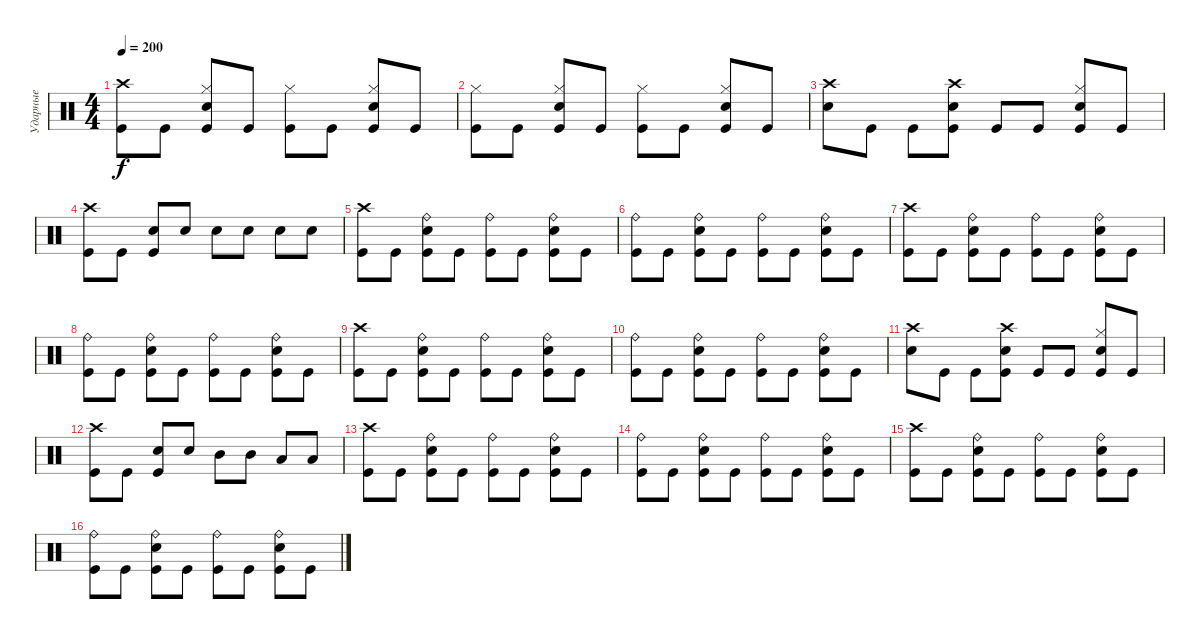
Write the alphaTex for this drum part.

\track ("Ударные" "Ударные") {instrument percussion}
\staff {score}
\articulation defaults
\ts (4 4)
\tempo 200
\clef neutral
\ks c
("Crash high (hit)" "Kick (hit)").8{dy f} "Kick (hit)".8 ("Hi-Hat (closed)" "Electric Snare (hit)" "Kick (hit)").8 "Kick (hit)".8 ("Hi-Hat (closed)" "Kick (hit)").8 "Kick (hit)".8 ("Hi-Hat (closed)" "Electric Snare (hit)" "Kick (hit)").8 "Kick (hit)".8 |
("Hi-Hat (closed)" "Kick (hit)").8 "Kick (hit)".8 ("Hi-Hat (closed)" "Electric Snare (hit)" "Kick (hit)").8 "Kick (hit)".8 ("Hi-Hat (closed)" "Kick (hit)").8 "Kick (hit)".8 ("Hi-Hat (closed)" "Electric Snare (hit)" "Kick (hit)").8 "Kick (hit)".8 |
("Crash high (hit)" "Electric Snare (hit)").8 "Kick (hit)".8 "Kick (hit)".8 ("Crash high (hit)" "Electric Snare (hit)" "Kick (hit)").8 "Kick (hit)".8 "Kick (hit)".8 ("Hi-Hat (closed)" "Electric Snare (hit)" "Kick (hit)").8 "Kick (hit)".8 |
("Crash high (hit)" "Kick (hit)").8 "Kick (hit)".8 ("Electric Snare (hit)" "Kick (hit)").8 "Electric Snare (hit)".8 "Electric Snare (hit)".8 "Electric Snare (hit)".8 "Electric Snare (hit)".8 "Electric Snare (hit)".8 |
("Crash high (hit)" "Kick (hit)").8 "Kick (hit)".8 ("Ride (bell)" "Electric Snare (hit)" "Kick (hit)").8 "Kick (hit)".8 ("Ride (bell)" "Kick (hit)").8 "Kick (hit)".8 ("Ride (bell)" "Electric Snare (hit)" "Kick (hit)").8 "Kick (hit)".8 |
("Ride (bell)" "Kick (hit)").8 "Kick (hit)".8 ("Ride (bell)" "Electric Snare (hit)" "Kick (hit)").8 "Kick (hit)".8 ("Ride (bell)" "Kick (hit)").8 "Kick (hit)".8 ("Ride (bell)" "Electric Snare (hit)" "Kick (hit)").8 "Kick (hit)".8 |
("Crash high (hit)" "Kick (hit)").8 "Kick (hit)".8 ("Ride (bell)" "Electric Snare (hit)" "Kick (hit)").8 "Kick (hit)".8 ("Ride (bell)" "Kick (hit)").8 "Kick (hit)".8 ("Ride (bell)" "Electric Snare (hit)" "Kick (hit)").8 "Kick (hit)".8 |
("Ride (bell)" "Kick (hit)").8 "Kick (hit)".8 ("Ride (bell)" "Electric Snare (hit)" "Kick (hit)").8 "Kick (hit)".8 ("Ride (bell)" "Kick (hit)").8 "Kick (hit)".8 ("Ride (bell)" "Electric Snare (hit)" "Kick (hit)").8 "Kick (hit)".8 |
("Crash high (hit)" "Kick (hit)").8 "Kick (hit)".8 ("Ride (bell)" "Electric Snare (hit)" "Kick (hit)").8 "Kick (hit)".8 ("Ride (bell)" "Kick (hit)").8 "Kick (hit)".8 ("Ride (bell)" "Electric Snare (hit)" "Kick (hit)").8 "Kick (hit)".8 |
("Ride (bell)" "Kick (hit)").8 "Kick (hit)".8 ("Ride (bell)" "Electric Snare (hit)" "Kick (hit)").8 "Kick (hit)".8 ("Ride (bell)" "Kick (hit)").8 "Kick (hit)".8 ("Ride (bell)" "Electric Snare (hit)" "Kick (hit)").8 "Kick (hit)".8 |
("Crash high (hit)" "Electric Snare (hit)").8 "Kick (hit)".8 "Kick (hit)".8 ("Crash high (hit)" "Electric Snare (hit)" "Kick (hit)").8 "Kick (hit)".8 "Kick (hit)".8 ("Hi-Hat (closed)" "Electric Snare (hit)" "Kick (hit)").8 "Kick (hit)".8 |
("Crash high (hit)" "Kick (hit)").8 "Kick (hit)".8 ("Electric Snare (hit)" "Kick (hit)").8 "Electric Snare (hit)".8 "Mid Tom (hit)".8 "Mid Tom (hit)".8 "Low Tom (hit)".8 "Low Tom (hit)".8 |
("Crash high (hit)" "Kick (hit)").8 "Kick (hit)".8 ("Ride (bell)" "Electric Snare (hit)" "Kick (hit)").8 "Kick (hit)".8 ("Ride (bell)" "Kick (hit)").8 "Kick (hit)".8 ("Ride (bell)" "Electric Snare (hit)" "Kick (hit)").8 "Kick (hit)".8 |
("Ride (bell)" "Kick (hit)").8 "Kick (hit)".8 ("Ride (bell)" "Electric Snare (hit)" "Kick (hit)").8 "Kick (hit)".8 ("Ride (bell)" "Kick (hit)").8 "Kick (hit)".8 ("Ride (bell)" "Electric Snare (hit)" "Kick (hit)").8 "Kick (hit)".8 |
("Crash high (hit)" "Kick (hit)").8 "Kick (hit)".8 ("Ride (bell)" "Electric Snare (hit)" "Kick (hit)").8 "Kick (hit)".8 ("Ride (bell)" "Kick (hit)").8 "Kick (hit)".8 ("Ride (bell)" "Electric Snare (hit)" "Kick (hit)").8 "Kick (hit)".8 |
("Ride (bell)" "Kick (hit)").8 "Kick (hit)".8 ("Ride (bell)" "Electric Snare (hit)" "Kick (hit)").8 "Kick (hit)".8 ("Ride (bell)" "Kick (hit)").8 "Kick (hit)".8 ("Ride (bell)" "Electric Snare (hit)" "Kick (hit)").8 "Kick (hit)".8
